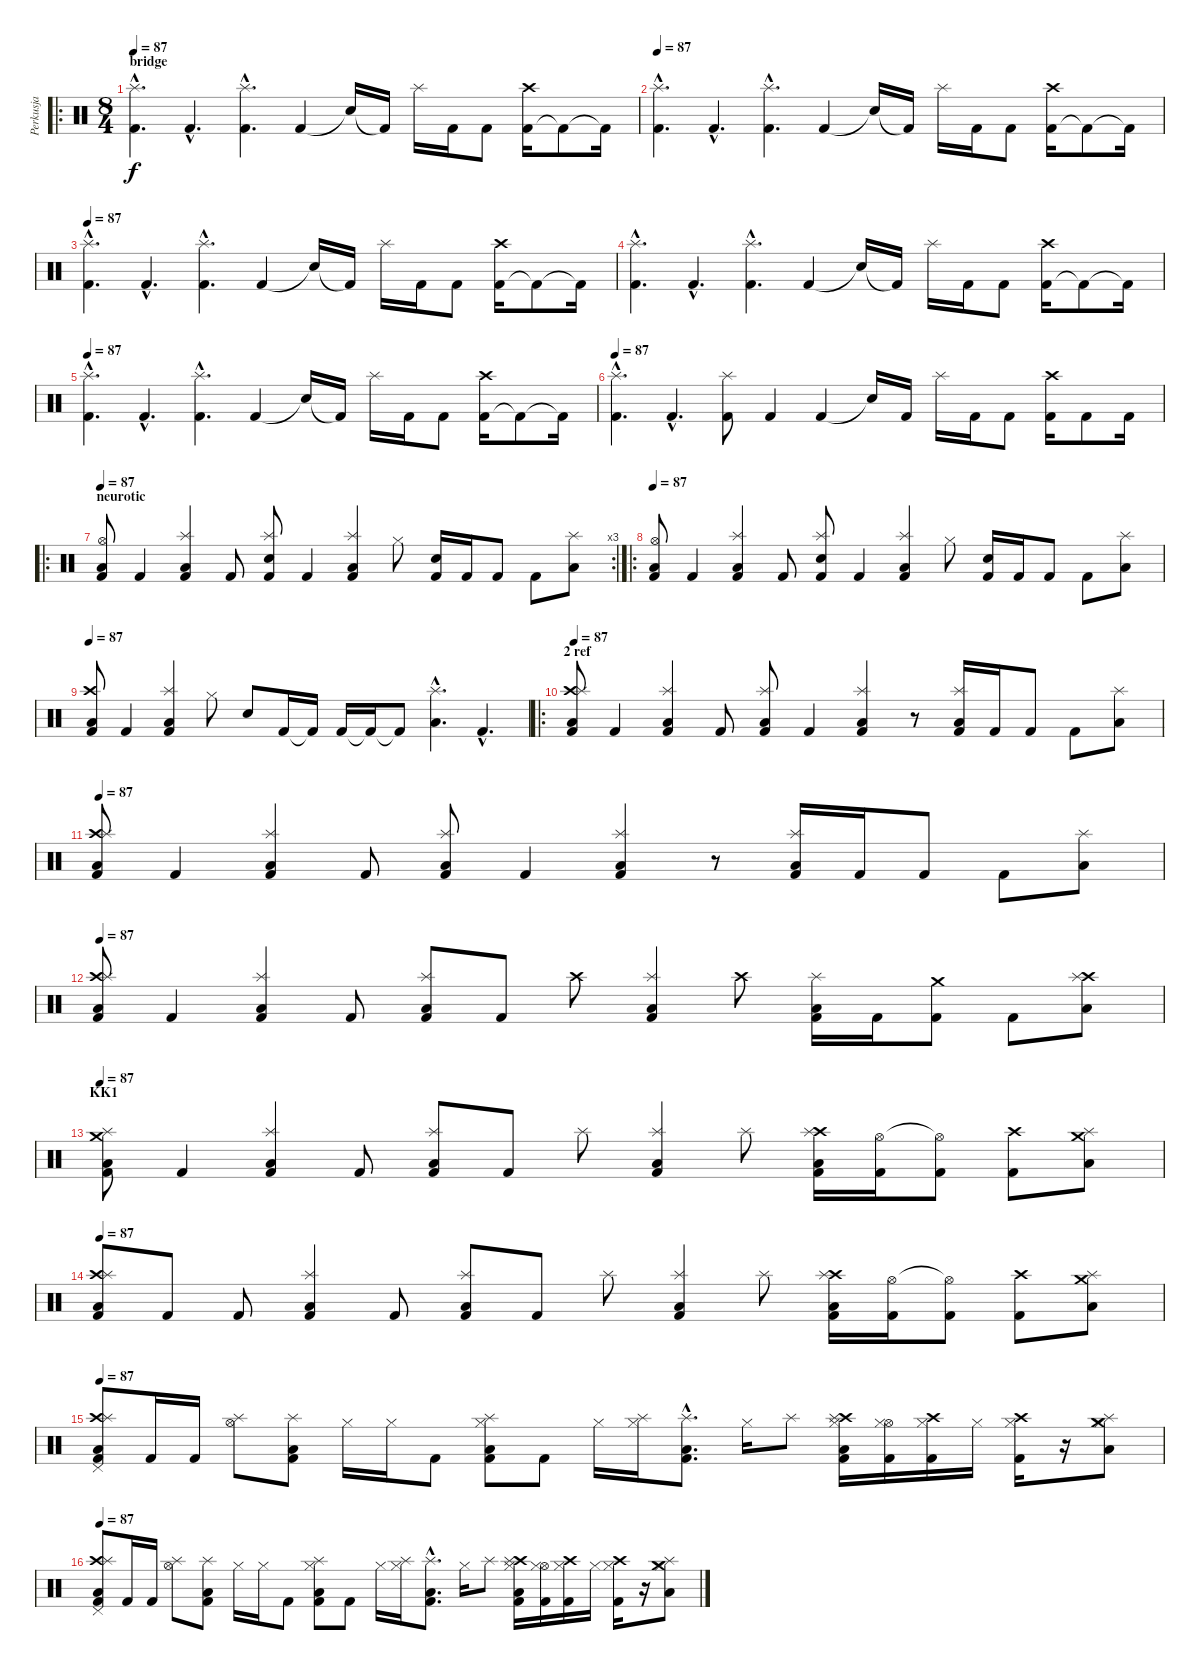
\track ("Perkusja" "Perkusja") {instrument percussion}
\staff {score}
\articulation defaults
\ro
\ts (8 4)
\section ("" "bridge")
\tempo 87
\clef neutral
\ks c
("Kick (hit) 2"{hac} "Splash (hit)"{hac}).4{d dy f} "Kick (hit) 2"{hac}.4{d} ("Kick (hit) 2"{hac} "Splash (hit)"{hac}).4{d} "Kick (hit) 2".4 "Snare (hit)"{t}.16 "Kick (hit) 2"{t}.16 "Splash (hit)".16 "Kick (hit) 2".16 "Kick (hit) 2".8 ("Kick (hit) 2" "Crash high (hit)").16 "Kick (hit) 2"{t}.8 "Kick (hit) 2"{t}.16 |
\tempo 87
("Kick (hit) 2"{hac} "Splash (hit)"{hac}).4{d} "Kick (hit) 2"{hac}.4{d} ("Kick (hit) 2"{hac} "Splash (hit)"{hac}).4{d} "Kick (hit) 2".4 "Snare (hit)"{t}.16 "Kick (hit) 2"{t}.16 "Splash (hit)".16 "Kick (hit) 2".16 "Kick (hit) 2".8 ("Kick (hit) 2" "Crash high (hit)").16 "Kick (hit) 2"{t}.8 "Kick (hit) 2"{t}.16 |
\tempo 87
("Kick (hit) 2"{hac} "Splash (hit)"{hac}).4{d} "Kick (hit) 2"{hac}.4{d} ("Kick (hit) 2"{hac} "Splash (hit)"{hac}).4{d} "Kick (hit) 2".4 "Snare (hit)"{t}.16 "Kick (hit) 2"{t}.16 "Splash (hit)".16 "Kick (hit) 2".16 "Kick (hit) 2".8 ("Kick (hit) 2" "Crash high (hit)").16 "Kick (hit) 2"{t}.8 "Kick (hit) 2"{t}.16 |
("Kick (hit) 2"{hac} "Splash (hit)"{hac}).4{d} "Kick (hit) 2"{hac}.4{d} ("Kick (hit) 2"{hac} "Splash (hit)"{hac}).4{d} "Kick (hit) 2".4 "Snare (hit)"{t}.16 "Kick (hit) 2"{t}.16 "Splash (hit)".16 "Kick (hit) 2".16 "Kick (hit) 2".8 ("Kick (hit) 2" "Crash high (hit)").16 "Kick (hit) 2"{t}.8 "Kick (hit) 2"{t}.16 |
\tempo 87
("Kick (hit) 2"{hac} "Splash (hit)"{hac}).4{d} "Kick (hit) 2"{hac}.4{d} ("Kick (hit) 2"{hac} "Splash (hit)"{hac}).4{d} "Kick (hit) 2".4 "Snare (hit)"{t}.16 "Kick (hit) 2"{t}.16 "Splash (hit)".16 "Kick (hit) 2".16 "Kick (hit) 2".8 ("Kick (hit) 2" "Crash high (hit)").16 "Kick (hit) 2"{t}.8 "Kick (hit) 2"{t}.16 |
\tempo 87
("Kick (hit) 2"{hac} "Splash (hit)"{hac}).4{d} "Kick (hit) 2"{hac}.4{d} ("Kick (hit) 2" "Splash (hit)").8 "Kick (hit) 2".4 "Kick (hit) 2".4 "Snare (hit)"{t}.16 "Kick (hit) 2".16 "Splash (hit)".16 "Kick (hit) 2".16 "Kick (hit) 2".8 ("Kick (hit) 2" "Crash high (hit)").16 "Kick (hit) 2".8 "Kick (hit) 2".16 |
\ro
\rc 3
\section ("" "neurotic")
\tempo 87
("Kick (hit) 2" "Hi-Hat (open)" "Low Tom (hit)").8 "Kick (hit) 2".4 ("Kick (hit) 2" "Splash (hit)" "Low Tom (hit)").4 "Kick (hit) 2".8 ("Kick (hit) 2" "Snare (hit) 2" "Splash (hit)").8 "Kick (hit) 2".4 ("Kick (hit) 2" "Splash (hit)" "Low Tom (hit)").4 "Hi-Hat (closed)".8 ("Kick (hit) 2" "Snare (hit) 2").16 "Kick (hit) 2".16 "Kick (hit) 2".8 "Kick (hit) 2".8 ("Splash (hit)" "Low Tom (hit)").8 |
\ro
\tempo 87
("Kick (hit) 2" "Hi-Hat (open)" "Low Tom (hit)").8 "Kick (hit) 2".4 ("Kick (hit) 2" "Splash (hit)" "Low Tom (hit)").4 "Kick (hit) 2".8 ("Kick (hit) 2" "Snare (hit) 2" "Splash (hit)").8 "Kick (hit) 2".4 ("Kick (hit) 2" "Splash (hit)" "Low Tom (hit)").4 "Hi-Hat (closed)".8 ("Kick (hit) 2" "Snare (hit) 2").16 "Kick (hit) 2".16 "Kick (hit) 2".8 "Kick (hit) 2".8 ("Splash (hit)" "Low Tom (hit)").8 |
\tempo 87
("Kick (hit) 2" "Crash high (hit)" "Low Tom (hit)").8 "Kick (hit) 2".4 ("Kick (hit) 2" "Splash (hit)" "Low Tom (hit)").4 "Hi-Hat (closed)".8 "Snare (hit) 2".8 "Kick (hit) 2".16 "Kick (hit) 2"{t}.16 "Kick (hit) 2".16 "Kick (hit) 2"{t}.16 "Kick (hit) 2"{t}.8 ("Splash (hit)"{hac} "Low Tom (hit)"{hac}).4{d} "Kick (hit) 2"{hac}.4{d} |
\ro
\section ("" "2 ref")
\tempo 87
("Kick (hit) 2" "Crash high (hit)" "Splash (hit)" "Low Tom (hit)").8 "Kick (hit) 2".4 ("Kick (hit) 2" "Splash (hit)" "Low Tom (hit)").4 "Kick (hit) 2".8 ("Kick (hit) 2" "Splash (hit)" "Low Tom (hit)").8 "Kick (hit) 2".4 ("Kick (hit) 2" "Splash (hit)" "Low Tom (hit)").4 r.8 ("Kick (hit) 2" "Splash (hit)" "Low Tom (hit)").16 "Kick (hit) 2".16 "Kick (hit) 2".8 "Kick (hit) 2".8 ("Splash (hit)" "Low Tom (hit)").8 |
\tempo 87
("Kick (hit) 2" "Crash high (hit)" "Splash (hit)" "Low Tom (hit)").8 "Kick (hit) 2".4 ("Kick (hit) 2" "Splash (hit)" "Low Tom (hit)").4 "Kick (hit) 2".8 ("Kick (hit) 2" "Splash (hit)" "Low Tom (hit)").8 "Kick (hit) 2".4 ("Kick (hit) 2" "Splash (hit)" "Low Tom (hit)").4 r.8 ("Kick (hit) 2" "Splash (hit)" "Low Tom (hit)").16 "Kick (hit) 2".16 "Kick (hit) 2".8 "Kick (hit) 2".8 ("Splash (hit)" "Low Tom (hit)").8 |
\tempo 87
("Kick (hit) 2" "Crash high (hit)" "Splash (hit)" "Low Tom (hit)").8 "Kick (hit) 2".4 ("Kick (hit) 2" "Splash (hit)" "Low Tom (hit)").4 "Kick (hit) 2".8 ("Kick (hit) 2" "Splash (hit)" "Low Tom (hit)").8 "Kick (hit) 2".8 "Crash high (hit)".8 ("Kick (hit) 2" "Splash (hit)" "Low Tom (hit)").4 "Crash high (hit)".8 ("Kick (hit) 2" "Splash (hit)" "Low Tom (hit)").16 "Kick (hit) 2".16 ("Kick (hit) 2" "Crash medium (hit)").8 "Kick (hit) 2".8 ("Crash high (hit)" "Splash (hit)" "Low Tom (hit)").8 |
\section ("" "KK1")
\tempo 87
("Kick (hit) 2" "Crash medium (hit)" "Splash (hit)" "Low Tom (hit)").8 "Kick (hit) 2".4 ("Kick (hit) 2" "Splash (hit)" "Low Tom (hit)").4 "Kick (hit) 2".8 ("Kick (hit) 2" "Splash (hit)" "Low Tom (hit)").8 "Kick (hit) 2".8 "Splash (hit)".8 ("Kick (hit) 2" "Splash (hit)" "Low Tom (hit)").4 "Splash (hit)".8 ("Kick (hit) 2" "Crash high (hit)" "Splash (hit)" "Low Tom (hit)").16 ("Kick (hit) 2" "Hi-Hat (open)").16 ("Kick (hit) 2" "Hi-Hat (open)"{t}).8 ("Kick (hit) 2" "Crash high (hit)").8 ("Crash medium (hit)" "Splash (hit)" "Low Tom (hit)").8 |
\tempo 87
("Kick (hit) 2" "Crash high (hit)" "Splash (hit)" "Low Tom (hit)").8 "Kick (hit) 2".8 "Kick (hit) 2".8 ("Kick (hit) 2" "Splash (hit)" "Low Tom (hit)").4 "Kick (hit) 2".8 ("Kick (hit) 2" "Splash (hit)" "Low Tom (hit)").8 "Kick (hit) 2".8 "Splash (hit)".8 ("Kick (hit) 2" "Splash (hit)" "Low Tom (hit)").4 "Splash (hit)".8 ("Kick (hit) 2" "Crash high (hit)" "Splash (hit)" "Low Tom (hit)").16 ("Kick (hit) 2" "Hi-Hat (open)").16 ("Kick (hit) 2" "Hi-Hat (open)"{t}).8 ("Kick (hit) 2" "Crash high (hit)").8 ("Crash medium (hit)" "Splash (hit)" "Low Tom (hit)").8 |
\tempo 87
("Kick (hit) 2" "Crash high (hit)" "Pedal Hi-Hat (hit)" "Splash (hit)" "Low Tom (hit)").8 "Kick (hit) 2".16 "Kick (hit) 2".16 ("Hi-Hat (open)" "Splash (hit)").8 ("Kick (hit) 2" "Splash (hit)" "Low Tom (hit)").8 "Hi-Hat (closed)".16 "Hi-Hat (closed)".16 "Kick (hit) 2".8 ("Kick (hit) 2" "Hi-Hat (closed)" "Splash (hit)" "Low Tom (hit)").8 "Kick (hit) 2".8 "Hi-Hat (closed)".16 ("Hi-Hat (closed)" "Splash (hit)").16 ("Kick (hit) 2"{hac} "Splash (hit)"{hac} "Low Tom (hit)"{hac}).8{d} "Hi-Hat (closed)".16 "Splash (hit)".8 ("Kick (hit) 2" "Crash high (hit)" "Hi-Hat (closed)" "Splash (hit)" "Low Tom (hit)").16 ("Kick (hit) 2" "Hi-Hat (open)" "Hi-Hat (closed)").16 ("Kick (hit) 2" "Crash high (hit)" "Hi-Hat (closed)").16 "Hi-Hat (closed)".16 ("Kick (hit) 2" "Crash high (hit)" "Hi-Hat (closed)").16 r.16 ("Crash medium (hit)" "Hi-Hat (closed)" "Splash (hit)" "Low Tom (hit)").8 |
\tempo 87
("Kick (hit) 2" "Crash high (hit)" "Pedal Hi-Hat (hit)" "Splash (hit)" "Low Tom (hit)").8 "Kick (hit) 2".16 "Kick (hit) 2".16 ("Hi-Hat (open)" "Splash (hit)").8 ("Kick (hit) 2" "Splash (hit)" "Low Tom (hit)").8 "Hi-Hat (closed)".16 "Hi-Hat (closed)".16 "Kick (hit) 2".8 ("Kick (hit) 2" "Hi-Hat (closed)" "Splash (hit)" "Low Tom (hit)").8 "Kick (hit) 2".8 "Hi-Hat (closed)".16 ("Hi-Hat (closed)" "Splash (hit)").16 ("Kick (hit) 2"{hac} "Splash (hit)"{hac} "Low Tom (hit)"{hac}).8{d} "Hi-Hat (closed)".16 "Splash (hit)".8 ("Kick (hit) 2" "Crash high (hit)" "Hi-Hat (closed)" "Splash (hit)" "Low Tom (hit)").16 ("Kick (hit) 2" "Hi-Hat (open)" "Hi-Hat (closed)").16 ("Kick (hit) 2" "Crash high (hit)" "Hi-Hat (closed)").16 "Hi-Hat (closed)".16 ("Kick (hit) 2" "Crash high (hit)" "Hi-Hat (closed)").16 r.16 ("Crash medium (hit)" "Hi-Hat (closed)" "Splash (hit)" "Low Tom (hit)").8
